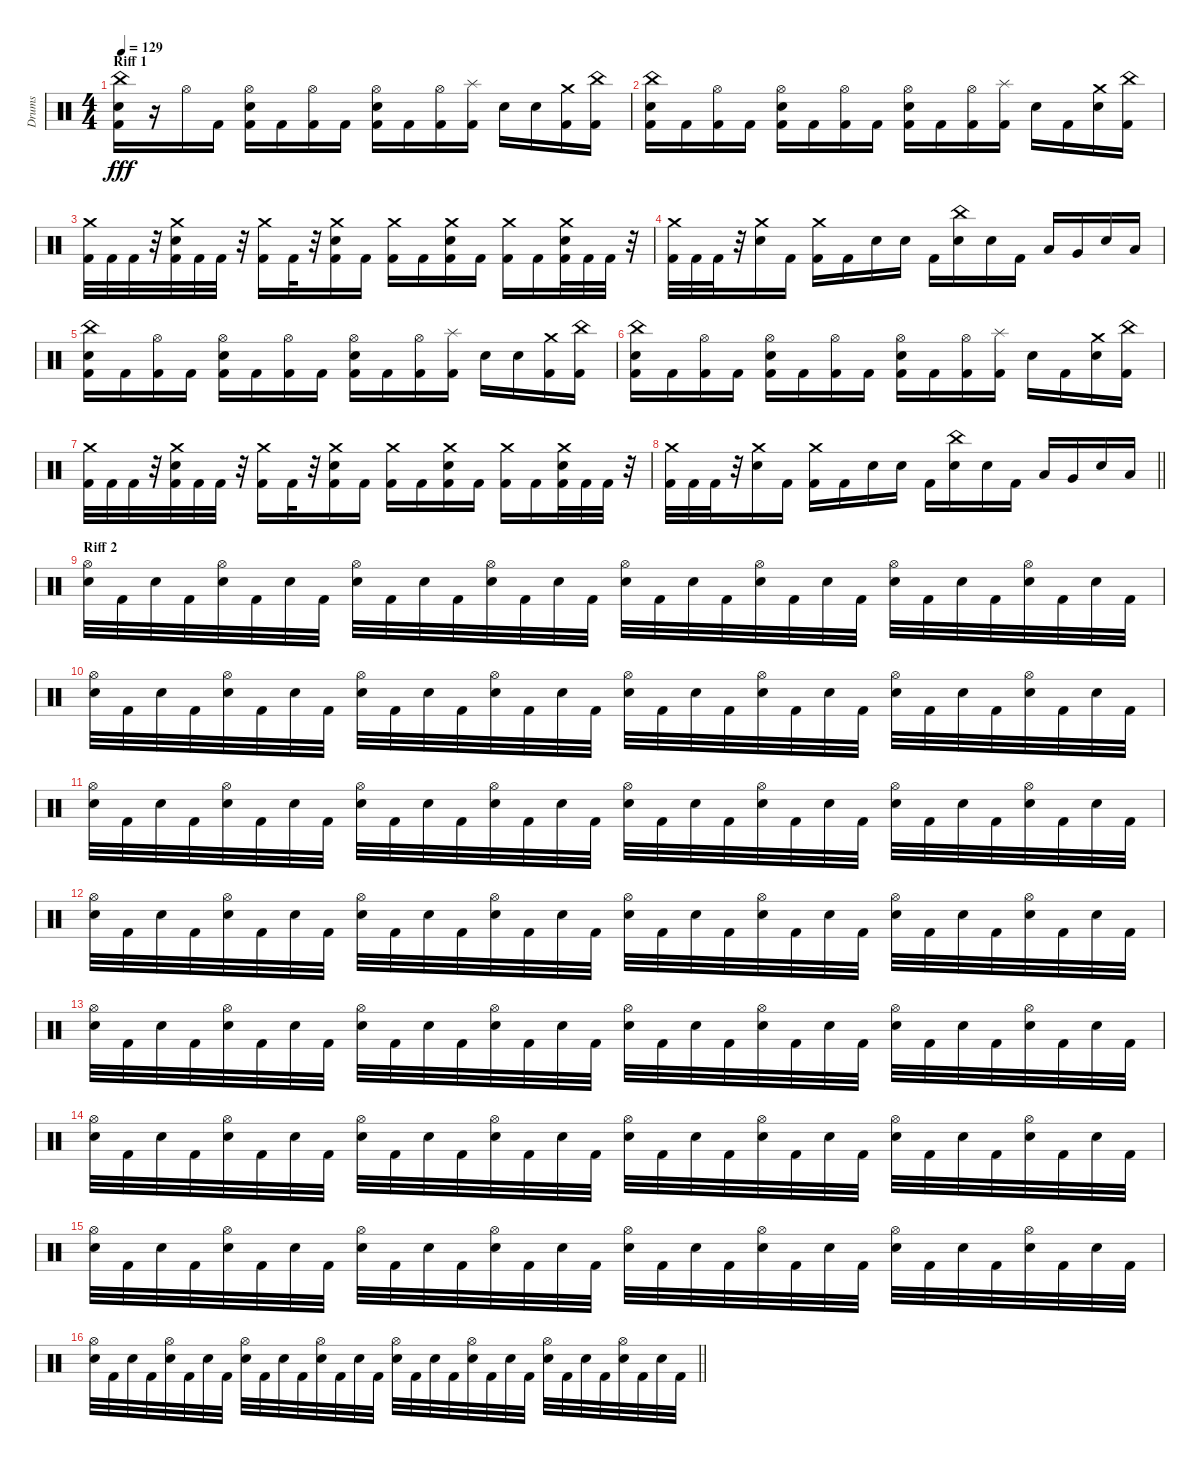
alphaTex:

\track ("Drums" "Drums") {instrument percussion}
\staff {score}
\articulation defaults
\ts (4 4)
\section ("" "Riff 1")
\tempo 129
\clef neutral
\ks c
("Kick (hit) 2" "Snare (hit) 2" "China (hit)").16{dy fff} r.16 "Hi-Hat (open)".16 "Kick (hit) 2".16 ("Kick (hit) 2" "Snare (hit) 2" "Hi-Hat (open)").16 "Kick (hit) 2".16 ("Kick (hit) 2" "Hi-Hat (open)").16 "Kick (hit) 2".16 ("Kick (hit) 2" "Snare (hit) 2" "Hi-Hat (open)").16 "Kick (hit) 2".16 ("Kick (hit) 2" "Hi-Hat (open)").16 ("Kick (hit) 2" "Splash (hit)").16 "Snare (hit) 2".16 "Snare (hit) 2".16 ("Kick (hit) 2" "Crash medium (hit)").16 ("Kick (hit) 2" "China (hit)").16 |
("Kick (hit) 2" "Snare (hit) 2" "China (hit)").16 "Kick (hit) 2".16 ("Kick (hit) 2" "Hi-Hat (open)").16 "Kick (hit) 2".16 ("Kick (hit) 2" "Snare (hit) 2" "Hi-Hat (open)").16 "Kick (hit) 2".16 ("Kick (hit) 2" "Hi-Hat (open)").16 "Kick (hit) 2".16 ("Kick (hit) 2" "Snare (hit) 2" "Hi-Hat (open)").16 "Kick (hit) 2".16 ("Kick (hit) 2" "Hi-Hat (open)").16 ("Kick (hit) 2" "Splash (hit)").16 "Snare (hit) 2".16 "Kick (hit) 2".16 ("Snare (hit) 2" "Crash medium (hit)").16 ("Kick (hit) 2" "China (hit)").16 |
("Kick (hit) 2" "Crash medium (hit)").32 "Kick (hit) 2".32 "Kick (hit) 2".32 r.32 ("Kick (hit) 2" "Snare (hit) 2" "Crash medium (hit)").32 "Kick (hit) 2".32 "Kick (hit) 2".32 r.32 ("Kick (hit) 2" "Crash medium (hit)").16 "Kick (hit) 2".32 r.32 ("Kick (hit) 2" "Snare (hit) 2" "Crash medium (hit)").16 "Kick (hit) 2".16 ("Kick (hit) 2" "Crash medium (hit)").16 "Kick (hit) 2".16 ("Kick (hit) 2" "Snare (hit) 2" "Crash medium (hit)").16 "Kick (hit) 2".16 ("Kick (hit) 2" "Crash medium (hit)").16 "Kick (hit) 2".16 ("Kick (hit) 2" "Snare (hit) 2" "Crash medium (hit)").32 "Kick (hit) 2".32 "Kick (hit) 2".32 r.32 |
("Kick (hit) 2" "Crash medium (hit)").32 "Kick (hit) 2".32 "Kick (hit) 2".32 r.32 ("Snare (hit) 2" "Crash medium (hit)").16 "Kick (hit) 2".16 ("Kick (hit) 2" "Crash medium (hit)").16 "Kick (hit) 2".16 "Snare (hit) 2".16 "Snare (hit) 2".16 "Kick (hit) 2".16 ("Snare (hit) 2" "China (hit)").16 "Snare (hit) 2".16 "Kick (hit) 2".16 "Low Tom (hit)".16 "Very Low Tom (hit)".16 "Snare (hit) 2".16 "Low Floor Tom (hit)".16 |
("Kick (hit) 2" "Snare (hit) 2" "China (hit)").16 "Kick (hit) 2".16 ("Kick (hit) 2" "Hi-Hat (open)").16 "Kick (hit) 2".16 ("Kick (hit) 2" "Snare (hit) 2" "Hi-Hat (open)").16 "Kick (hit) 2".16 ("Kick (hit) 2" "Hi-Hat (open)").16 "Kick (hit) 2".16 ("Kick (hit) 2" "Snare (hit) 2" "Hi-Hat (open)").16 "Kick (hit) 2".16 ("Kick (hit) 2" "Hi-Hat (open)").16 ("Kick (hit) 2" "Splash (hit)").16 "Snare (hit) 2".16 "Snare (hit) 2".16 ("Kick (hit) 2" "Crash medium (hit)").16 ("Kick (hit) 2" "China (hit)").16 |
("Kick (hit) 2" "Snare (hit) 2" "China (hit)").16 "Kick (hit) 2".16 ("Kick (hit) 2" "Hi-Hat (open)").16 "Kick (hit) 2".16 ("Kick (hit) 2" "Snare (hit) 2" "Hi-Hat (open)").16 "Kick (hit) 2".16 ("Kick (hit) 2" "Hi-Hat (open)").16 "Kick (hit) 2".16 ("Kick (hit) 2" "Snare (hit) 2" "Hi-Hat (open)").16 "Kick (hit) 2".16 ("Kick (hit) 2" "Hi-Hat (open)").16 ("Kick (hit) 2" "Splash (hit)").16 "Snare (hit) 2".16 "Kick (hit) 2".16 ("Snare (hit) 2" "Crash medium (hit)").16 ("Kick (hit) 2" "China (hit)").16 |
("Kick (hit) 2" "Crash medium (hit)").32 "Kick (hit) 2".32 "Kick (hit) 2".32 r.32 ("Kick (hit) 2" "Snare (hit) 2" "Crash medium (hit)").32 "Kick (hit) 2".32 "Kick (hit) 2".32 r.32 ("Kick (hit) 2" "Crash medium (hit)").16 "Kick (hit) 2".32 r.32 ("Kick (hit) 2" "Snare (hit) 2" "Crash medium (hit)").16 "Kick (hit) 2".16 ("Kick (hit) 2" "Crash medium (hit)").16 "Kick (hit) 2".16 ("Kick (hit) 2" "Snare (hit) 2" "Crash medium (hit)").16 "Kick (hit) 2".16 ("Kick (hit) 2" "Crash medium (hit)").16 "Kick (hit) 2".16 ("Kick (hit) 2" "Snare (hit) 2" "Crash medium (hit)").32 "Kick (hit) 2".32 "Kick (hit) 2".32 r.32 |
\barLineRight lightlight
("Kick (hit) 2" "Crash medium (hit)").32 "Kick (hit) 2".32 "Kick (hit) 2".32 r.32 ("Snare (hit) 2" "Crash medium (hit)").16 "Kick (hit) 2".16 ("Kick (hit) 2" "Crash medium (hit)").16 "Kick (hit) 2".16 "Snare (hit) 2".16 "Snare (hit) 2".16 "Kick (hit) 2".16 ("Snare (hit) 2" "China (hit)").16 "Snare (hit) 2".16 "Kick (hit) 2".16 "Low Tom (hit)".16 "Very Low Tom (hit)".16 "Snare (hit) 2".16 "Low Floor Tom (hit)".16 |
\section ("" "Riff 2")
("Snare (hit) 2" "Hi-Hat (open)").32 "Kick (hit) 2".32 "Snare (hit) 2".32 "Kick (hit) 2".32 ("Snare (hit) 2" "Hi-Hat (open)").32 "Kick (hit) 2".32 "Snare (hit) 2".32 "Kick (hit) 2".32 ("Snare (hit) 2" "Hi-Hat (open)").32 "Kick (hit) 2".32 "Snare (hit) 2".32 "Kick (hit) 2".32 ("Snare (hit) 2" "Hi-Hat (open)").32 "Kick (hit) 2".32 "Snare (hit) 2".32 "Kick (hit) 2".32 ("Snare (hit) 2" "Hi-Hat (open)").32 "Kick (hit) 2".32 "Snare (hit) 2".32 "Kick (hit) 2".32 ("Snare (hit) 2" "Hi-Hat (open)").32 "Kick (hit) 2".32 "Snare (hit) 2".32 "Kick (hit) 2".32 ("Snare (hit) 2" "Hi-Hat (open)").32 "Kick (hit) 2".32 "Snare (hit) 2".32 "Kick (hit) 2".32 ("Snare (hit) 2" "Hi-Hat (open)").32 "Kick (hit) 2".32 "Snare (hit) 2".32 "Kick (hit) 2".32 |
("Snare (hit) 2" "Hi-Hat (open)").32 "Kick (hit) 2".32 "Snare (hit) 2".32 "Kick (hit) 2".32 ("Snare (hit) 2" "Hi-Hat (open)").32 "Kick (hit) 2".32 "Snare (hit) 2".32 "Kick (hit) 2".32 ("Snare (hit) 2" "Hi-Hat (open)").32 "Kick (hit) 2".32 "Snare (hit) 2".32 "Kick (hit) 2".32 ("Snare (hit) 2" "Hi-Hat (open)").32 "Kick (hit) 2".32 "Snare (hit) 2".32 "Kick (hit) 2".32 ("Snare (hit) 2" "Hi-Hat (open)").32 "Kick (hit) 2".32 "Snare (hit) 2".32 "Kick (hit) 2".32 ("Snare (hit) 2" "Hi-Hat (open)").32 "Kick (hit) 2".32 "Snare (hit) 2".32 "Kick (hit) 2".32 ("Snare (hit) 2" "Hi-Hat (open)").32 "Kick (hit) 2".32 "Snare (hit) 2".32 "Kick (hit) 2".32 ("Snare (hit) 2" "Hi-Hat (open)").32 "Kick (hit) 2".32 "Snare (hit) 2".32 "Kick (hit) 2".32 |
("Snare (hit) 2" "Hi-Hat (open)").32 "Kick (hit) 2".32 "Snare (hit) 2".32 "Kick (hit) 2".32 ("Snare (hit) 2" "Hi-Hat (open)").32 "Kick (hit) 2".32 "Snare (hit) 2".32 "Kick (hit) 2".32 ("Snare (hit) 2" "Hi-Hat (open)").32 "Kick (hit) 2".32 "Snare (hit) 2".32 "Kick (hit) 2".32 ("Snare (hit) 2" "Hi-Hat (open)").32 "Kick (hit) 2".32 "Snare (hit) 2".32 "Kick (hit) 2".32 ("Snare (hit) 2" "Hi-Hat (open)").32 "Kick (hit) 2".32 "Snare (hit) 2".32 "Kick (hit) 2".32 ("Snare (hit) 2" "Hi-Hat (open)").32 "Kick (hit) 2".32 "Snare (hit) 2".32 "Kick (hit) 2".32 ("Snare (hit) 2" "Hi-Hat (open)").32 "Kick (hit) 2".32 "Snare (hit) 2".32 "Kick (hit) 2".32 ("Snare (hit) 2" "Hi-Hat (open)").32 "Kick (hit) 2".32 "Snare (hit) 2".32 "Kick (hit) 2".32 |
("Snare (hit) 2" "Hi-Hat (open)").32 "Kick (hit) 2".32 "Snare (hit) 2".32 "Kick (hit) 2".32 ("Snare (hit) 2" "Hi-Hat (open)").32 "Kick (hit) 2".32 "Snare (hit) 2".32 "Kick (hit) 2".32 ("Snare (hit) 2" "Hi-Hat (open)").32 "Kick (hit) 2".32 "Snare (hit) 2".32 "Kick (hit) 2".32 ("Snare (hit) 2" "Hi-Hat (open)").32 "Kick (hit) 2".32 "Snare (hit) 2".32 "Kick (hit) 2".32 ("Snare (hit) 2" "Hi-Hat (open)").32 "Kick (hit) 2".32 "Snare (hit) 2".32 "Kick (hit) 2".32 ("Snare (hit) 2" "Hi-Hat (open)").32 "Kick (hit) 2".32 "Snare (hit) 2".32 "Kick (hit) 2".32 ("Snare (hit) 2" "Hi-Hat (open)").32 "Kick (hit) 2".32 "Snare (hit) 2".32 "Kick (hit) 2".32 ("Snare (hit) 2" "Hi-Hat (open)").32 "Kick (hit) 2".32 "Snare (hit) 2".32 "Kick (hit) 2".32 |
("Snare (hit) 2" "Hi-Hat (open)").32 "Kick (hit) 2".32 "Snare (hit) 2".32 "Kick (hit) 2".32 ("Snare (hit) 2" "Hi-Hat (open)").32 "Kick (hit) 2".32 "Snare (hit) 2".32 "Kick (hit) 2".32 ("Snare (hit) 2" "Hi-Hat (open)").32 "Kick (hit) 2".32 "Snare (hit) 2".32 "Kick (hit) 2".32 ("Snare (hit) 2" "Hi-Hat (open)").32 "Kick (hit) 2".32 "Snare (hit) 2".32 "Kick (hit) 2".32 ("Snare (hit) 2" "Hi-Hat (open)").32 "Kick (hit) 2".32 "Snare (hit) 2".32 "Kick (hit) 2".32 ("Snare (hit) 2" "Hi-Hat (open)").32 "Kick (hit) 2".32 "Snare (hit) 2".32 "Kick (hit) 2".32 ("Snare (hit) 2" "Hi-Hat (open)").32 "Kick (hit) 2".32 "Snare (hit) 2".32 "Kick (hit) 2".32 ("Snare (hit) 2" "Hi-Hat (open)").32 "Kick (hit) 2".32 "Snare (hit) 2".32 "Kick (hit) 2".32 |
("Snare (hit) 2" "Hi-Hat (open)").32 "Kick (hit) 2".32 "Snare (hit) 2".32 "Kick (hit) 2".32 ("Snare (hit) 2" "Hi-Hat (open)").32 "Kick (hit) 2".32 "Snare (hit) 2".32 "Kick (hit) 2".32 ("Snare (hit) 2" "Hi-Hat (open)").32 "Kick (hit) 2".32 "Snare (hit) 2".32 "Kick (hit) 2".32 ("Snare (hit) 2" "Hi-Hat (open)").32 "Kick (hit) 2".32 "Snare (hit) 2".32 "Kick (hit) 2".32 ("Snare (hit) 2" "Hi-Hat (open)").32 "Kick (hit) 2".32 "Snare (hit) 2".32 "Kick (hit) 2".32 ("Snare (hit) 2" "Hi-Hat (open)").32 "Kick (hit) 2".32 "Snare (hit) 2".32 "Kick (hit) 2".32 ("Snare (hit) 2" "Hi-Hat (open)").32 "Kick (hit) 2".32 "Snare (hit) 2".32 "Kick (hit) 2".32 ("Snare (hit) 2" "Hi-Hat (open)").32 "Kick (hit) 2".32 "Snare (hit) 2".32 "Kick (hit) 2".32 |
("Snare (hit) 2" "Hi-Hat (open)").32 "Kick (hit) 2".32 "Snare (hit) 2".32 "Kick (hit) 2".32 ("Snare (hit) 2" "Hi-Hat (open)").32 "Kick (hit) 2".32 "Snare (hit) 2".32 "Kick (hit) 2".32 ("Snare (hit) 2" "Hi-Hat (open)").32 "Kick (hit) 2".32 "Snare (hit) 2".32 "Kick (hit) 2".32 ("Snare (hit) 2" "Hi-Hat (open)").32 "Kick (hit) 2".32 "Snare (hit) 2".32 "Kick (hit) 2".32 ("Snare (hit) 2" "Hi-Hat (open)").32 "Kick (hit) 2".32 "Snare (hit) 2".32 "Kick (hit) 2".32 ("Snare (hit) 2" "Hi-Hat (open)").32 "Kick (hit) 2".32 "Snare (hit) 2".32 "Kick (hit) 2".32 ("Snare (hit) 2" "Hi-Hat (open)").32 "Kick (hit) 2".32 "Snare (hit) 2".32 "Kick (hit) 2".32 ("Snare (hit) 2" "Hi-Hat (open)").32 "Kick (hit) 2".32 "Snare (hit) 2".32 "Kick (hit) 2".32 |
\barLineRight lightlight
("Snare (hit) 2" "Hi-Hat (open)").32 "Kick (hit) 2".32 "Snare (hit) 2".32 "Kick (hit) 2".32 ("Snare (hit) 2" "Hi-Hat (open)").32 "Kick (hit) 2".32 "Snare (hit) 2".32 "Kick (hit) 2".32 ("Snare (hit) 2" "Hi-Hat (open)").32 "Kick (hit) 2".32 "Snare (hit) 2".32 "Kick (hit) 2".32 ("Snare (hit) 2" "Hi-Hat (open)").32 "Kick (hit) 2".32 "Snare (hit) 2".32 "Kick (hit) 2".32 ("Snare (hit) 2" "Hi-Hat (open)").32 "Kick (hit) 2".32 "Snare (hit) 2".32 "Kick (hit) 2".32 ("Snare (hit) 2" "Hi-Hat (open)").32 "Kick (hit) 2".32 "Snare (hit) 2".32 "Kick (hit) 2".32 ("Snare (hit) 2" "Hi-Hat (open)").32 "Kick (hit) 2".32 "Snare (hit) 2".32 "Kick (hit) 2".32 ("Snare (hit) 2" "Hi-Hat (open)").32 "Kick (hit) 2".32 "Snare (hit) 2".32 "Kick (hit) 2".32
